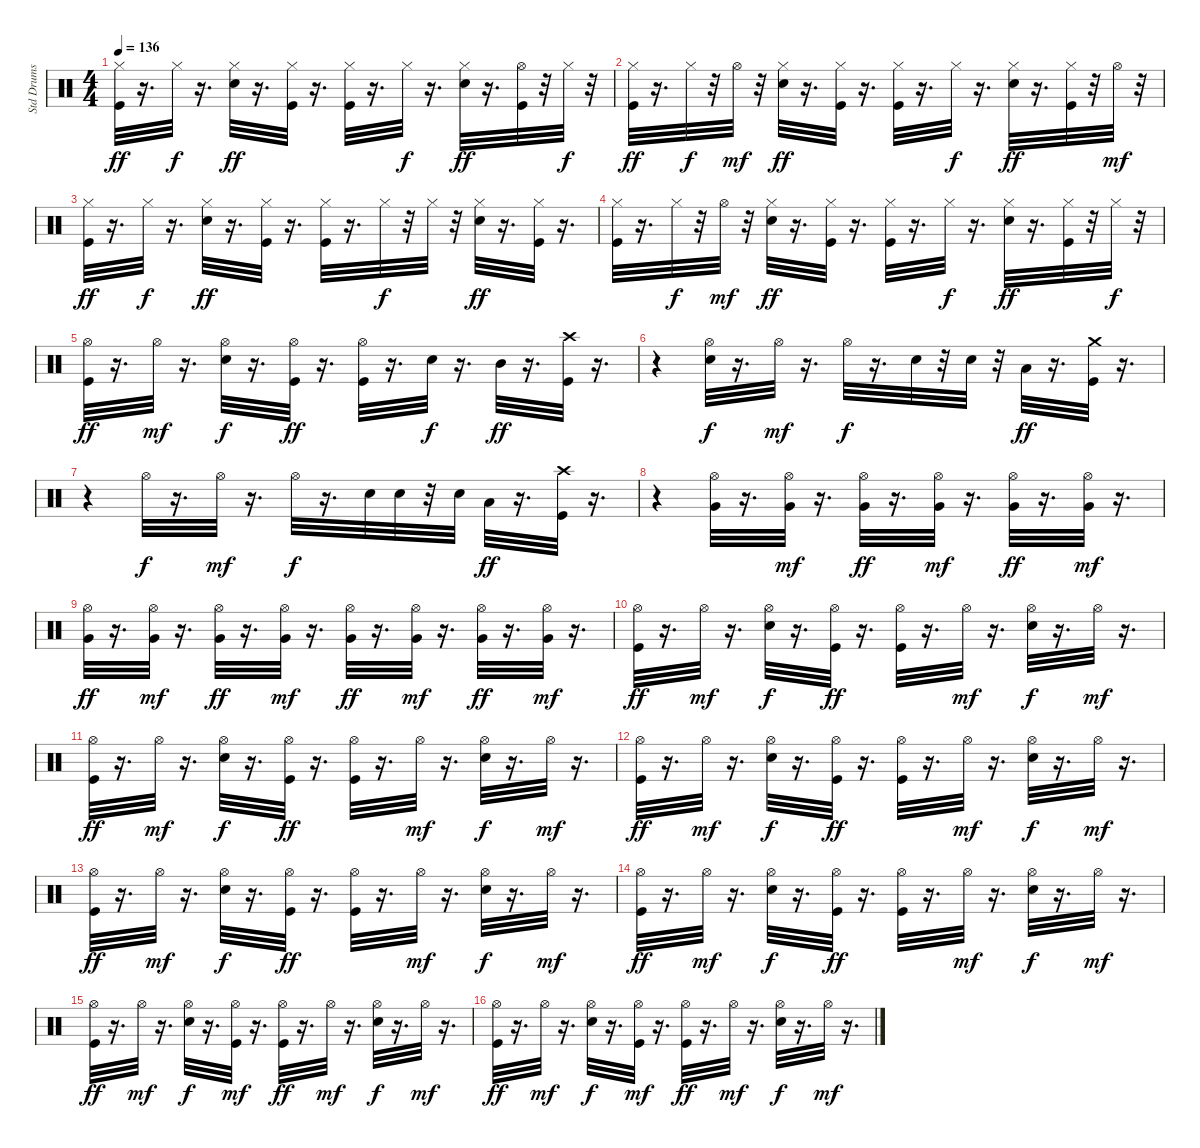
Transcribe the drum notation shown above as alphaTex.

\track ("Std Drums" "Std Drums") {instrument percussion}
\staff {score}
\articulation defaults
\ts (4 4)
\tempo 136
\clef neutral
\ks c
("Kick (hit)" "Hi-Hat (closed)").32{dy ff} r.16{d} "Hi-Hat (closed)".32{dy f} r.16{d} ("Hi-Hat (closed)" "Snare (hit) 2").32{dy ff} r.16{d} ("Kick (hit)" "Hi-Hat (closed)").32 r.16{d} ("Hi-Hat (closed)" "Kick (hit)").32 r.16{d} "Hi-Hat (closed)".32{dy f} r.16{d} ("Hi-Hat (closed)" "Snare (hit) 2").32{dy ff} r.16{d} ("Hi-Hat (open)" "Kick (hit)").32 r.32 "Hi-Hat (closed)".32{dy f} r.32 |
("Kick (hit)" "Hi-Hat (closed)").32{dy ff} r.16{d} "Hi-Hat (closed)".32{dy f} r.32 "Hi-Hat (open)".32{dy mf} r.32 ("Hi-Hat (closed)" "Snare (hit) 2").32{dy ff} r.16{d} ("Hi-Hat (closed)" "Kick (hit)").32 r.16{d} ("Hi-Hat (closed)" "Kick (hit)").32 r.16{d} "Hi-Hat (closed)".32{dy f} r.16{d} ("Snare (hit) 2" "Hi-Hat (closed)").32{dy ff} r.16{d} ("Hi-Hat (closed)" "Kick (hit)").32 r.32 "Hi-Hat (open)".32{dy mf} r.32 |
("Kick (hit)" "Hi-Hat (closed)").32{dy ff} r.16{d} "Hi-Hat (closed)".32{dy f} r.16{d} ("Snare (hit) 2" "Hi-Hat (closed)").32{dy ff} r.16{d} ("Kick (hit)" "Hi-Hat (closed)").32 r.16{d} ("Kick (hit)" "Hi-Hat (closed)").32 r.16{d} "Hi-Hat (closed)".32{dy f} r.32 "Hi-Hat (closed)".32 r.32 ("Hi-Hat (closed)" "Snare (hit) 2").32{dy ff} r.16{d} ("Kick (hit)" "Hi-Hat (closed)").32 r.16{d} |
("Hi-Hat (closed)" "Kick (hit)").32 r.16{d} "Hi-Hat (closed)".32{dy f} r.32 "Hi-Hat (open)".32{dy mf} r.32 ("Snare (hit) 2" "Hi-Hat (closed)").32{dy ff} r.16{d} ("Hi-Hat (closed)" "Kick (hit)").32 r.16{d} ("Kick (hit)" "Hi-Hat (closed)").32 r.16{d} "Hi-Hat (closed)".32{dy f} r.16{d} ("Snare (hit) 2" "Hi-Hat (closed)").32{dy ff} r.16{d} ("Kick (hit)" "Hi-Hat (closed)").32 r.32 "Hi-Hat (closed)".32{dy f} r.32 |
("Hi-Hat (open)" "Kick (hit)").32{dy ff} r.16{d} "Hi-Hat (open)".32{dy mf} r.16{d} ("Hi-Hat (open)" "Snare (hit) 2").32{dy f} r.16{d} ("Hi-Hat (open)" "Kick (hit)").32{dy ff} r.16{d} ("Kick (hit)" "Hi-Hat (open)").32 r.16{d} "Snare (hit) 2".32{dy f} r.16{d} "Mid Tom (hit)".32{dy ff} r.16{d} ("Kick (hit)" "Crash high (hit)").32 r.16{d} |
r.4 ("Snare (hit) 2" "Hi-Hat (open)").32{dy f} r.16{d} "Hi-Hat (open)".32{dy mf} r.16{d} "Hi-Hat (open)".32{dy f} r.16{d} "Snare (hit) 2".32 r.32 "Snare (hit) 2".32 r.32 "Low Tom (hit)".32{dy ff} r.16{d} ("Crash medium (hit)" "Kick (hit)").32 r.16{d} |
r.4 "Hi-Hat (open)".32{dy f} r.16{d} "Hi-Hat (open)".32{dy mf} r.16{d} "Hi-Hat (open)".32{dy f} r.16{d} "Snare (hit) 2".32 "Snare (hit) 2".32 r.32 "Snare (hit) 2".32 "Low Tom (hit)".32{dy ff} r.16{d} ("Crash high (hit)" "Kick (hit)").32 r.16{d} |
r.4 ("Very Low Tom (hit)" "Hi-Hat (open)").32 r.16{d} ("Very Low Tom (hit)" "Hi-Hat (open)").32{dy mf} r.16{d} ("Very Low Tom (hit)" "Hi-Hat (open)").32{dy ff} r.16{d} ("Very Low Tom (hit)" "Hi-Hat (open)").32{dy mf} r.16{d} ("Very Low Tom (hit)" "Hi-Hat (open)").32{dy ff} r.16{d} ("Hi-Hat (open)" "Very Low Tom (hit)").32{dy mf} r.16{d} |
("Very Low Tom (hit)" "Hi-Hat (open)").32{dy ff} r.16{d} ("Very Low Tom (hit)" "Hi-Hat (open)").32{dy mf} r.16{d} ("Very Low Tom (hit)" "Hi-Hat (open)").32{dy ff} r.16{d} ("Very Low Tom (hit)" "Hi-Hat (open)").32{dy mf} r.16{d} ("Hi-Hat (open)" "Very Low Tom (hit)").32{dy ff} r.16{d} ("Very Low Tom (hit)" "Hi-Hat (open)").32{dy mf} r.16{d} ("Very Low Tom (hit)" "Hi-Hat (open)").32{dy ff} r.16{d} ("Very Low Tom (hit)" "Hi-Hat (open)").32{dy mf} r.16{d} |
("Hi-Hat (open)" "Kick (hit)").32{dy ff} r.16{d} "Hi-Hat (open)".32{dy mf} r.16{d} ("Hi-Hat (open)" "Snare (hit) 2").32{dy f} r.16{d} ("Hi-Hat (open)" "Kick (hit)").32{dy ff} r.16{d} ("Hi-Hat (open)" "Kick (hit)").32 r.16{d} "Hi-Hat (open)".32{dy mf} r.16{d} ("Snare (hit) 2" "Hi-Hat (open)").32{dy f} r.16{d} "Hi-Hat (open)".32{dy mf} r.16{d} |
("Hi-Hat (open)" "Kick (hit)").32{dy ff} r.16{d} "Hi-Hat (open)".32{dy mf} r.16{d} ("Hi-Hat (open)" "Snare (hit) 2").32{dy f} r.16{d} ("Hi-Hat (open)" "Kick (hit)").32{dy ff} r.16{d} ("Kick (hit)" "Hi-Hat (open)").32 r.16{d} "Hi-Hat (open)".32{dy mf} r.16{d} ("Snare (hit) 2" "Hi-Hat (open)").32{dy f} r.16{d} "Hi-Hat (open)".32{dy mf} r.16{d} |
("Hi-Hat (open)" "Kick (hit)").32{dy ff} r.16{d} "Hi-Hat (open)".32{dy mf} r.16{d} ("Hi-Hat (open)" "Snare (hit) 2").32{dy f} r.16{d} ("Hi-Hat (open)" "Kick (hit)").32{dy ff} r.16{d} ("Kick (hit)" "Hi-Hat (open)").32 r.16{d} "Hi-Hat (open)".32{dy mf} r.16{d} ("Snare (hit) 2" "Hi-Hat (open)").32{dy f} r.16{d} "Hi-Hat (open)".32{dy mf} r.16{d} |
("Hi-Hat (open)" "Kick (hit)").32{dy ff} r.16{d} "Hi-Hat (open)".32{dy mf} r.16{d} ("Hi-Hat (open)" "Snare (hit) 2").32{dy f} r.16{d} ("Hi-Hat (open)" "Kick (hit)").32{dy ff} r.16{d} ("Kick (hit)" "Hi-Hat (open)").32 r.16{d} "Hi-Hat (open)".32{dy mf} r.16{d} ("Hi-Hat (open)" "Snare (hit) 2").32{dy f} r.16{d} "Hi-Hat (open)".32{dy mf} r.16{d} |
("Hi-Hat (open)" "Kick (hit)").32{dy ff} r.16{d} "Hi-Hat (open)".32{dy mf} r.16{d} ("Hi-Hat (open)" "Snare (hit) 2").32{dy f} r.16{d} ("Hi-Hat (open)" "Kick (hit)").32{dy ff} r.16{d} ("Hi-Hat (open)" "Kick (hit)").32 r.16{d} "Hi-Hat (open)".32{dy mf} r.16{d} ("Snare (hit) 2" "Hi-Hat (open)").32{dy f} r.16{d} "Hi-Hat (open)".32{dy mf} r.16{d} |
("Hi-Hat (open)" "Kick (hit)").32{dy ff} r.16{d} "Hi-Hat (open)".32{dy mf} r.16{d} ("Snare (hit) 2" "Hi-Hat (open)").32{dy f} r.16{d} ("Kick (hit)" "Hi-Hat (open)").32{dy mf} r.16{d} ("Hi-Hat (open)" "Kick (hit)").32{dy ff} r.16{d} "Hi-Hat (open)".32{dy mf} r.16{d} ("Snare (hit) 2" "Hi-Hat (open)").32{dy f} r.16{d} "Hi-Hat (open)".32{dy mf} r.16{d} |
("Kick (hit)" "Hi-Hat (open)").32{dy ff} r.16{d} "Hi-Hat (open)".32{dy mf} r.16{d} ("Snare (hit) 2" "Hi-Hat (open)").32{dy f} r.16{d} ("Kick (hit)" "Hi-Hat (open)").32{dy mf} r.16{d} ("Hi-Hat (open)" "Kick (hit)").32{dy ff} r.16{d} "Hi-Hat (open)".32{dy mf} r.16{d} ("Snare (hit) 2" "Hi-Hat (open)").32{dy f} r.16{d} "Hi-Hat (open)".32{dy mf} r.16{d}
